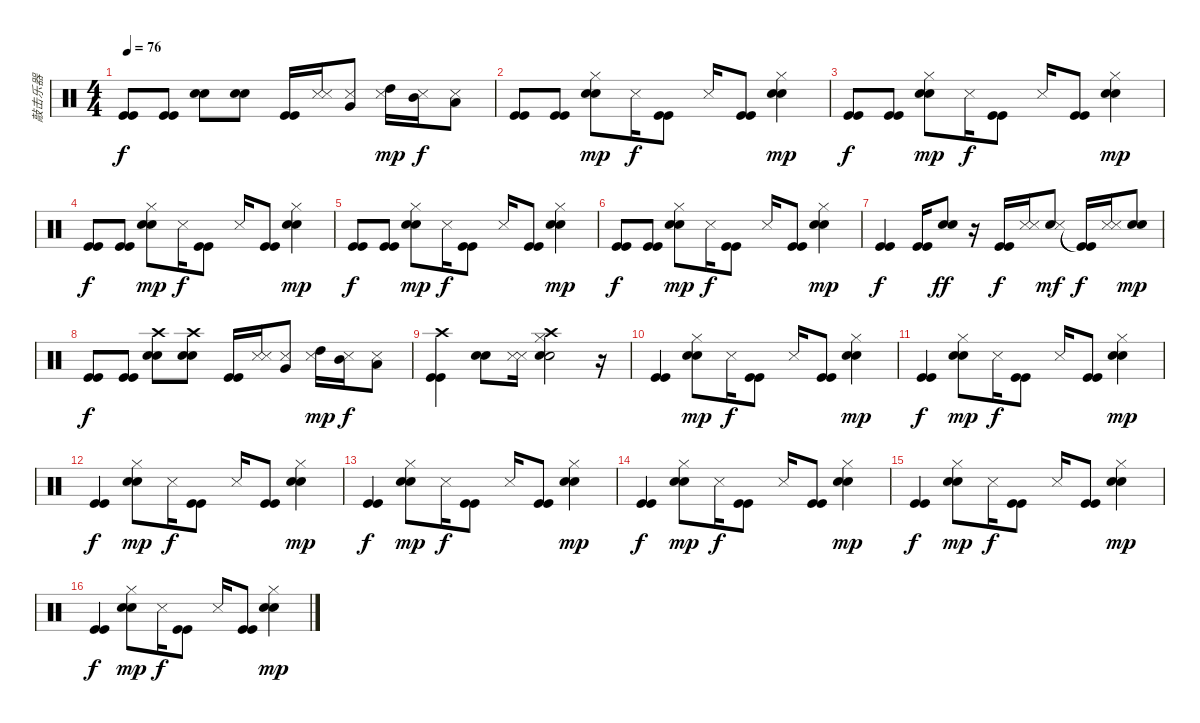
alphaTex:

\track ("敲击乐器" "敲击乐器") {instrument percussion}
\staff {score}
\articulation defaults
\ts (4 4)
\tempo 76
\clef neutral
\ks c
("Kick (hit)" "Kick (hit)").8{dy f} ("Kick (hit)" "Kick (hit)").8 ("Electric Snare (hit)" "Metronome (bell)").8 ("Electric Snare (hit)" "Metronome (bell)").8 ("Kick (hit)" "Kick (hit)").16 ("Metronome (hit)" "Metronome (hit)").16 ("Very Low Tom (hit)" "Metronome (hit)").8 ("High Tom (hit)" "Metronome (hit)").16{dy mp} ("Mid Tom (hit)" "Metronome (hit)").16{dy f} ("Low Tom (hit)" "Metronome (hit)").8 |
("Kick (hit)" "Kick (hit)").8 ("Kick (hit)" "Kick (hit)").8 ("Electric Snare (hit)" "Metronome (bell)" "Hi-Hat (closed)").8{dy mp} "Metronome (hit)".16{dy f} ("Kick (hit)" "Kick (hit)").8 "Metronome (hit)".16 ("Kick (hit)" "Kick (hit)").8 ("Electric Snare (hit)" "Metronome (bell)" "Hi-Hat (closed)").4{dy mp} |
("Kick (hit)" "Kick (hit)").8{dy f} ("Kick (hit)" "Kick (hit)").8 ("Electric Snare (hit)" "Metronome (bell)" "Hi-Hat (closed)").8{dy mp} "Metronome (hit)".16{dy f} ("Kick (hit)" "Kick (hit)").8 "Metronome (hit)".16 ("Kick (hit)" "Kick (hit)").8 ("Electric Snare (hit)" "Metronome (bell)" "Hi-Hat (closed)").4{dy mp} |
("Kick (hit)" "Kick (hit)").8{dy f} ("Kick (hit)" "Kick (hit)").8 ("Electric Snare (hit)" "Metronome (bell)" "Hi-Hat (closed)").8{dy mp} "Metronome (hit)".16{dy f} ("Kick (hit)" "Kick (hit)").8 "Metronome (hit)".16 ("Kick (hit)" "Kick (hit)").8 ("Electric Snare (hit)" "Metronome (bell)" "Hi-Hat (closed)").4{dy mp} |
("Kick (hit)" "Kick (hit)").8{dy f} ("Kick (hit)" "Kick (hit)").8 ("Electric Snare (hit)" "Metronome (bell)" "Hi-Hat (closed)").8{dy mp} "Metronome (hit)".16{dy f} ("Kick (hit)" "Kick (hit)").8 "Metronome (hit)".16 ("Kick (hit)" "Kick (hit)").8 ("Electric Snare (hit)" "Metronome (bell)" "Hi-Hat (closed)").4{dy mp} |
("Kick (hit)" "Kick (hit)").8{dy f} ("Kick (hit)" "Kick (hit)").8 ("Electric Snare (hit)" "Metronome (bell)" "Hi-Hat (closed)").8{dy mp} "Metronome (hit)".16{dy f} ("Kick (hit)" "Kick (hit)").8 "Metronome (hit)".16 ("Kick (hit)" "Kick (hit)").8 ("Electric Snare (hit)" "Metronome (bell)" "Hi-Hat (closed)").4{dy mp} |
("Kick (hit)" "Kick (hit)").4{dy f} ("Kick (hit)" "Kick (hit)").16 ("Electric Snare (hit)" "Metronome (bell)").8{dy ff} r.16 ("Kick (hit)" "Kick (hit)").16{dy f} ("Metronome (hit)" "Metronome (hit)").16 ("Metronome (bell)" "Metronome (hit)").8{dy mf} ("Kick (hit)"{t} "Kick (hit)"{t}).16{dy f} ("Metronome (hit)" "Metronome (hit)").16 ("Electric Snare (hit)" "Metronome (bell)").8{dy mp} |
("Kick (hit)" "Kick (hit)").8{dy f} ("Kick (hit)" "Kick (hit)").8 ("Electric Snare (hit)" "Metronome (bell)" "Crash high (hit)").8 ("Electric Snare (hit)" "Metronome (bell)" "Crash high (hit)").8 ("Kick (hit)" "Kick (hit)").16 ("Metronome (hit)" "Metronome (hit)").16 ("Very Low Tom (hit)" "Metronome (hit)").8 ("High Tom (hit)" "Metronome (hit)").16{dy mp} ("Mid Tom (hit)" "Metronome (hit)").16{dy f} ("Low Tom (hit)" "Metronome (hit)").8 |
("Kick (hit)" "Kick (hit)" "Crash high (hit)").4 ("Electric Snare (hit)" "Metronome (bell)").8 ("Metronome (hit)" "Metronome (hit)").16 ("Electric Snare (hit)" "Metronome (bell)" "Hi-Hat (closed)" "Crash high (hit)").2 r.16 |
("Kick (hit)" "Kick (hit)").4 ("Electric Snare (hit)" "Metronome (bell)" "Hi-Hat (closed)").8{dy mp} "Metronome (hit)".16{dy f} ("Kick (hit)" "Kick (hit)").8 "Metronome (hit)".16 ("Kick (hit)" "Kick (hit)").8 ("Electric Snare (hit)" "Metronome (bell)" "Hi-Hat (closed)").4{dy mp} |
("Kick (hit)" "Kick (hit)").4{dy f} ("Electric Snare (hit)" "Metronome (bell)" "Hi-Hat (closed)").8{dy mp} "Metronome (hit)".16{dy f} ("Kick (hit)" "Kick (hit)").8 "Metronome (hit)".16 ("Kick (hit)" "Kick (hit)").8 ("Electric Snare (hit)" "Metronome (bell)" "Hi-Hat (closed)").4{dy mp} |
("Kick (hit)" "Kick (hit)").4{dy f} ("Electric Snare (hit)" "Metronome (bell)" "Hi-Hat (closed)").8{dy mp} "Metronome (hit)".16{dy f} ("Kick (hit)" "Kick (hit)").8 "Metronome (hit)".16 ("Kick (hit)" "Kick (hit)").8 ("Electric Snare (hit)" "Metronome (bell)" "Hi-Hat (closed)").4{dy mp} |
("Kick (hit)" "Kick (hit)").4{dy f} ("Electric Snare (hit)" "Metronome (bell)" "Hi-Hat (closed)").8{dy mp} "Metronome (hit)".16{dy f} ("Kick (hit)" "Kick (hit)").8 "Metronome (hit)".16 ("Kick (hit)" "Kick (hit)").8 ("Electric Snare (hit)" "Metronome (bell)" "Hi-Hat (closed)").4{dy mp} |
("Kick (hit)" "Kick (hit)").4{dy f} ("Electric Snare (hit)" "Metronome (bell)" "Hi-Hat (closed)").8{dy mp} "Metronome (hit)".16{dy f} ("Kick (hit)" "Kick (hit)").8 "Metronome (hit)".16 ("Kick (hit)" "Kick (hit)").8 ("Electric Snare (hit)" "Metronome (bell)" "Hi-Hat (closed)").4{dy mp} |
("Kick (hit)" "Kick (hit)").4{dy f} ("Electric Snare (hit)" "Metronome (bell)" "Hi-Hat (closed)").8{dy mp} "Metronome (hit)".16{dy f} ("Kick (hit)" "Kick (hit)").8 "Metronome (hit)".16 ("Kick (hit)" "Kick (hit)").8 ("Electric Snare (hit)" "Metronome (bell)" "Hi-Hat (closed)").4{dy mp} |
("Kick (hit)" "Kick (hit)").4{dy f} ("Electric Snare (hit)" "Metronome (bell)" "Hi-Hat (closed)").8{dy mp} "Metronome (hit)".16{dy f} ("Kick (hit)" "Kick (hit)").8 "Metronome (hit)".16 ("Kick (hit)" "Kick (hit)").8 ("Electric Snare (hit)" "Metronome (bell)" "Hi-Hat (closed)").4{dy mp}
